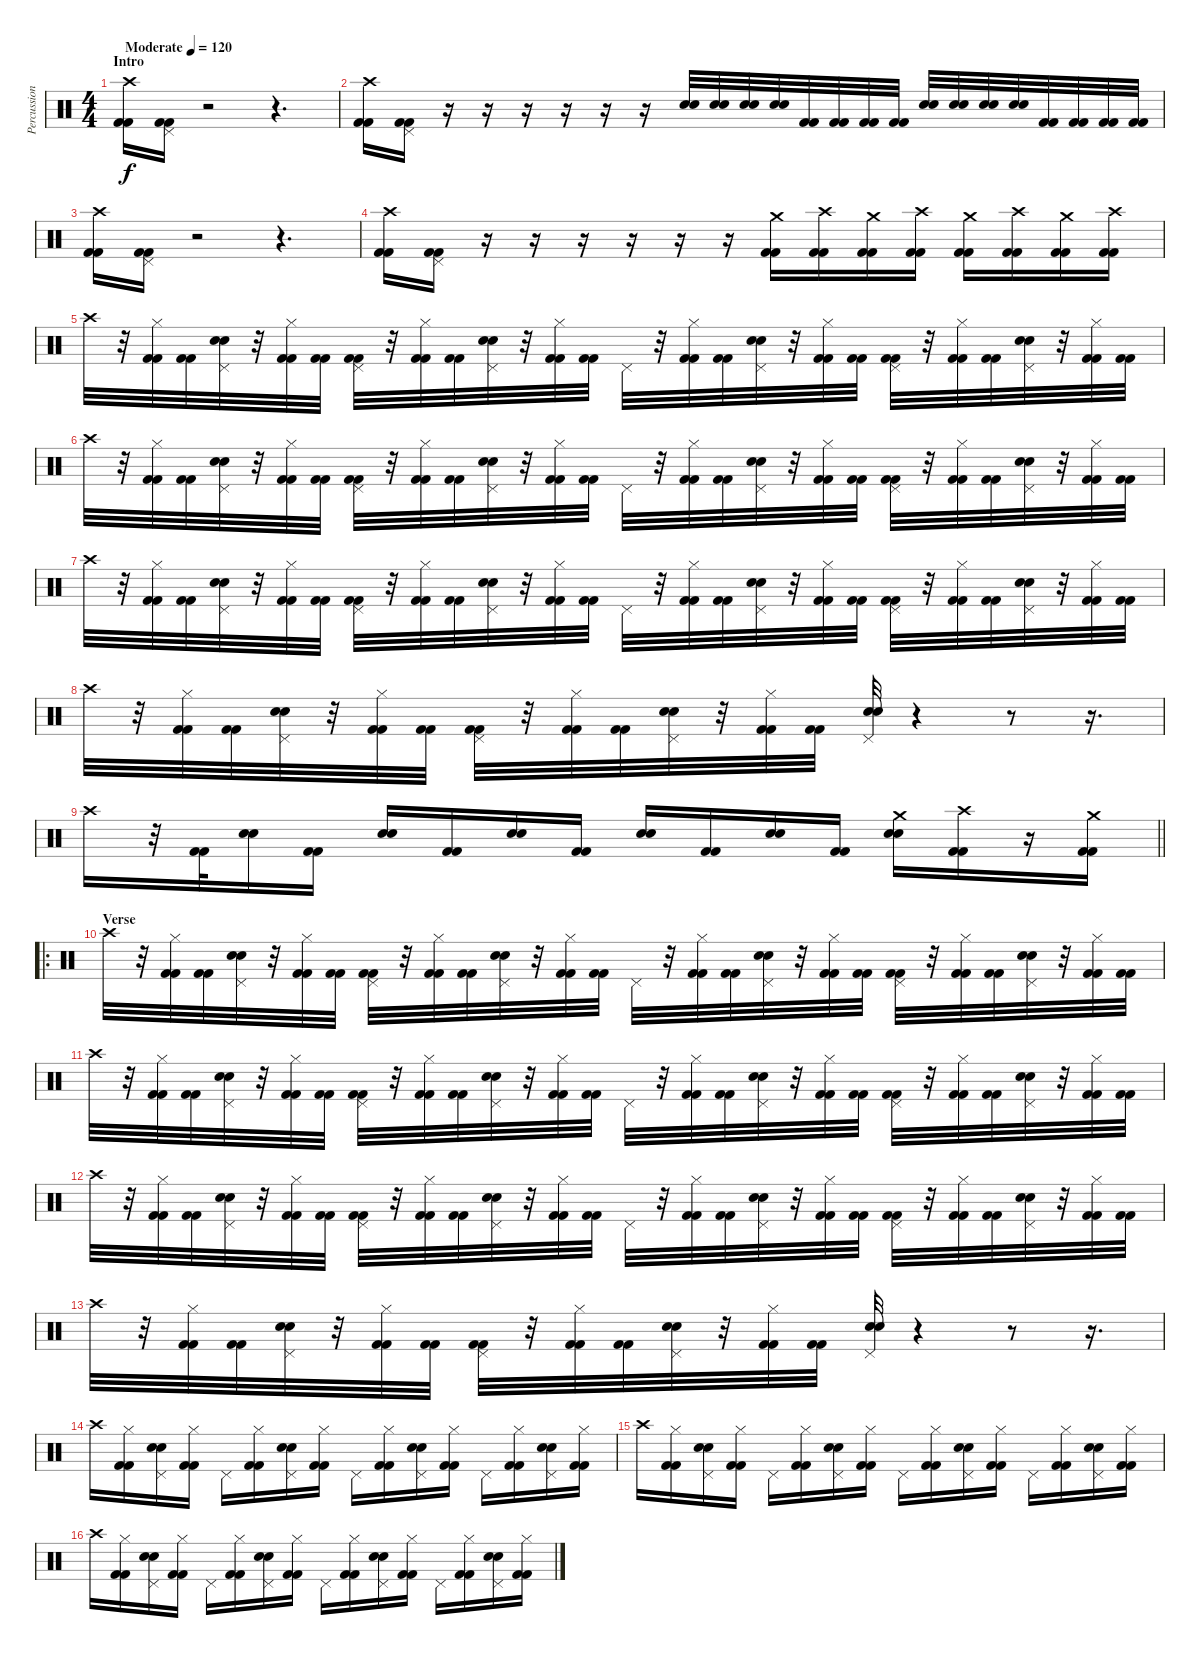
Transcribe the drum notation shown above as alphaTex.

\track ("Percussions" "Percussion") {instrument percussion}
\staff {score}
\articulation defaults
\ts (4 4)
\section ("" "Intro")
\tempo (120 "Moderate")
\clef neutral
\ks c
("Crash high (hit)" "Kick (hit) 2" "Kick (hit) 2").16{dy f} ("Pedal Hi-Hat (hit)" "Kick (hit) 2" "Kick (hit) 2").16 r.2 r.4{d} |
("Crash high (hit)" "Kick (hit) 2" "Kick (hit) 2").16 ("Pedal Hi-Hat (hit)" "Kick (hit) 2" "Kick (hit) 2").16 r.16 r.16 r.16 r.16 r.16 r.16 ("Snare (hit) 2" "Electric Snare (hit)").32 ("Snare (hit) 2" "Electric Snare (hit)").32 ("Snare (hit) 2" "Electric Snare (hit)").32 ("Snare (hit) 2" "Electric Snare (hit)").32 ("Kick (hit) 2" "Kick (hit) 2").32 ("Kick (hit) 2" "Kick (hit) 2").32 ("Kick (hit) 2" "Kick (hit) 2").32 ("Kick (hit) 2" "Kick (hit) 2").32 ("Snare (hit) 2" "Electric Snare (hit)").32 ("Snare (hit) 2" "Electric Snare (hit)").32 ("Snare (hit) 2" "Electric Snare (hit)").32 ("Snare (hit) 2" "Electric Snare (hit)").32 ("Kick (hit) 2" "Kick (hit) 2").32 ("Kick (hit) 2" "Kick (hit) 2").32 ("Kick (hit) 2" "Kick (hit) 2").32 ("Kick (hit) 2" "Kick (hit) 2").32 |
("Crash high (hit)" "Kick (hit) 2" "Kick (hit) 2").16 ("Pedal Hi-Hat (hit)" "Kick (hit) 2" "Kick (hit) 2").16 r.2 r.4{d} |
("Crash high (hit)" "Kick (hit) 2" "Kick (hit) 2").16 ("Pedal Hi-Hat (hit)" "Kick (hit) 2" "Kick (hit) 2").16 r.16 r.16 r.16 r.16 r.16 r.16 ("Crash medium (hit)" "Kick (hit) 2" "Kick (hit) 2").16 ("Crash high (hit)" "Kick (hit) 2" "Kick (hit) 2").16 ("Crash medium (hit)" "Kick (hit) 2" "Kick (hit) 2").16 ("Crash high (hit)" "Kick (hit) 2" "Kick (hit) 2").16 ("Crash medium (hit)" "Kick (hit) 2" "Kick (hit) 2").16 ("Crash high (hit)" "Kick (hit) 2" "Kick (hit) 2").16 ("Crash medium (hit)" "Kick (hit) 2" "Kick (hit) 2").16 ("Crash high (hit)" "Kick (hit) 2" "Kick (hit) 2").16 |
"Crash high (hit)".32 r.32 ("Hi-Hat (closed)" "Kick (hit) 2" "Kick (hit) 2").32 ("Kick (hit) 2" "Kick (hit) 2").32 ("Pedal Hi-Hat (hit)" "Snare (hit) 2" "Electric Snare (hit)").32 r.32 ("Hi-Hat (closed)" "Kick (hit) 2" "Kick (hit) 2").32 ("Kick (hit) 2" "Kick (hit) 2").32 ("Pedal Hi-Hat (hit)" "Kick (hit) 2" "Kick (hit) 2").32 r.32 ("Hi-Hat (closed)" "Kick (hit) 2" "Kick (hit) 2").32 ("Kick (hit) 2" "Kick (hit) 2").32 ("Pedal Hi-Hat (hit)" "Snare (hit) 2" "Electric Snare (hit)").32 r.32 ("Hi-Hat (closed)" "Kick (hit) 2" "Kick (hit) 2").32 ("Kick (hit) 2" "Kick (hit) 2").32 "Pedal Hi-Hat (hit)".32 r.32 ("Hi-Hat (closed)" "Kick (hit) 2" "Kick (hit) 2").32 ("Kick (hit) 2" "Kick (hit) 2").32 ("Pedal Hi-Hat (hit)" "Snare (hit) 2" "Electric Snare (hit)").32 r.32 ("Hi-Hat (closed)" "Kick (hit) 2" "Kick (hit) 2").32 ("Kick (hit) 2" "Kick (hit) 2").32 ("Pedal Hi-Hat (hit)" "Kick (hit) 2" "Kick (hit) 2").32 r.32 ("Hi-Hat (closed)" "Kick (hit) 2" "Kick (hit) 2").32 ("Kick (hit) 2" "Kick (hit) 2").32 ("Pedal Hi-Hat (hit)" "Snare (hit) 2" "Electric Snare (hit)").32 r.32 ("Hi-Hat (closed)" "Kick (hit) 2" "Kick (hit) 2").32 ("Kick (hit) 2" "Kick (hit) 2").32 |
"Crash high (hit)".32 r.32 ("Hi-Hat (closed)" "Kick (hit) 2" "Kick (hit) 2").32 ("Kick (hit) 2" "Kick (hit) 2").32 ("Pedal Hi-Hat (hit)" "Snare (hit) 2" "Electric Snare (hit)").32 r.32 ("Hi-Hat (closed)" "Kick (hit) 2" "Kick (hit) 2").32 ("Kick (hit) 2" "Kick (hit) 2").32 ("Pedal Hi-Hat (hit)" "Kick (hit) 2" "Kick (hit) 2").32 r.32 ("Hi-Hat (closed)" "Kick (hit) 2" "Kick (hit) 2").32 ("Kick (hit) 2" "Kick (hit) 2").32 ("Pedal Hi-Hat (hit)" "Snare (hit) 2" "Electric Snare (hit)").32 r.32 ("Hi-Hat (closed)" "Kick (hit) 2" "Kick (hit) 2").32 ("Kick (hit) 2" "Kick (hit) 2").32 "Pedal Hi-Hat (hit)".32 r.32 ("Hi-Hat (closed)" "Kick (hit) 2" "Kick (hit) 2").32 ("Kick (hit) 2" "Kick (hit) 2").32 ("Pedal Hi-Hat (hit)" "Snare (hit) 2" "Electric Snare (hit)").32 r.32 ("Hi-Hat (closed)" "Kick (hit) 2" "Kick (hit) 2").32 ("Kick (hit) 2" "Kick (hit) 2").32 ("Pedal Hi-Hat (hit)" "Kick (hit) 2" "Kick (hit) 2").32 r.32 ("Hi-Hat (closed)" "Kick (hit) 2" "Kick (hit) 2").32 ("Kick (hit) 2" "Kick (hit) 2").32 ("Pedal Hi-Hat (hit)" "Snare (hit) 2" "Electric Snare (hit)").32 r.32 ("Hi-Hat (closed)" "Kick (hit) 2" "Kick (hit) 2").32 ("Kick (hit) 2" "Kick (hit) 2").32 |
"Crash high (hit)".32 r.32 ("Hi-Hat (closed)" "Kick (hit) 2" "Kick (hit) 2").32 ("Kick (hit) 2" "Kick (hit) 2").32 ("Pedal Hi-Hat (hit)" "Snare (hit) 2" "Electric Snare (hit)").32 r.32 ("Hi-Hat (closed)" "Kick (hit) 2" "Kick (hit) 2").32 ("Kick (hit) 2" "Kick (hit) 2").32 ("Pedal Hi-Hat (hit)" "Kick (hit) 2" "Kick (hit) 2").32 r.32 ("Hi-Hat (closed)" "Kick (hit) 2" "Kick (hit) 2").32 ("Kick (hit) 2" "Kick (hit) 2").32 ("Pedal Hi-Hat (hit)" "Snare (hit) 2" "Electric Snare (hit)").32 r.32 ("Hi-Hat (closed)" "Kick (hit) 2" "Kick (hit) 2").32 ("Kick (hit) 2" "Kick (hit) 2").32 "Pedal Hi-Hat (hit)".32 r.32 ("Hi-Hat (closed)" "Kick (hit) 2" "Kick (hit) 2").32 ("Kick (hit) 2" "Kick (hit) 2").32 ("Pedal Hi-Hat (hit)" "Snare (hit) 2" "Electric Snare (hit)").32 r.32 ("Hi-Hat (closed)" "Kick (hit) 2" "Kick (hit) 2").32 ("Kick (hit) 2" "Kick (hit) 2").32 ("Pedal Hi-Hat (hit)" "Kick (hit) 2" "Kick (hit) 2").32 r.32 ("Hi-Hat (closed)" "Kick (hit) 2" "Kick (hit) 2").32 ("Kick (hit) 2" "Kick (hit) 2").32 ("Pedal Hi-Hat (hit)" "Snare (hit) 2" "Electric Snare (hit)").32 r.32 ("Hi-Hat (closed)" "Kick (hit) 2" "Kick (hit) 2").32 ("Kick (hit) 2" "Kick (hit) 2").32 |
"Crash high (hit)".32 r.32 ("Hi-Hat (closed)" "Kick (hit) 2" "Kick (hit) 2").32 ("Kick (hit) 2" "Kick (hit) 2").32 ("Pedal Hi-Hat (hit)" "Snare (hit) 2" "Electric Snare (hit)").32 r.32 ("Hi-Hat (closed)" "Kick (hit) 2" "Kick (hit) 2").32 ("Kick (hit) 2" "Kick (hit) 2").32 ("Pedal Hi-Hat (hit)" "Kick (hit) 2" "Kick (hit) 2").32 r.32 ("Hi-Hat (closed)" "Kick (hit) 2" "Kick (hit) 2").32 ("Kick (hit) 2" "Kick (hit) 2").32 ("Pedal Hi-Hat (hit)" "Snare (hit) 2" "Electric Snare (hit)").32 r.32 ("Hi-Hat (closed)" "Kick (hit) 2" "Kick (hit) 2").32 ("Kick (hit) 2" "Kick (hit) 2").32 ("Pedal Hi-Hat (hit)" "Snare (hit) 2" "Electric Snare (hit)").32 r.4 r.8 r.16{d} |
\barLineRight lightlight "Crash high (hit)".16
r.32 ("Kick (hit) 2" "Kick (hit) 2").32 ("Snare (hit) 2" "Electric Snare (hit)").16 ("Kick (hit) 2" "Kick (hit) 2").16 ("Snare (hit) 2" "Electric Snare (hit)").16 ("Kick (hit) 2" "Kick (hit) 2").16 ("Snare (hit) 2" "Electric Snare (hit)").16 ("Kick (hit) 2" "Kick (hit) 2").16 ("Snare (hit) 2" "Electric Snare (hit)").16 ("Kick (hit) 2" "Kick (hit) 2").16 ("Snare (hit) 2" "Electric Snare (hit)").16 ("Kick (hit) 2" "Kick (hit) 2").16 ("Crash medium (hit)" "Snare (hit) 2" "Electric Snare (hit)").16 ("Crash high (hit)" "Kick (hit) 2" "Kick (hit) 2").16 r.16 ("Crash medium (hit)" "Kick (hit) 2" "Kick (hit) 2").16 |
\ro
\section ("" "Verse")
"Crash high (hit)".32 r.32 ("Hi-Hat (closed)" "Kick (hit) 2" "Kick (hit) 2").32 ("Kick (hit) 2" "Kick (hit) 2").32 ("Pedal Hi-Hat (hit)" "Snare (hit) 2" "Electric Snare (hit)").32 r.32 ("Hi-Hat (closed)" "Kick (hit) 2" "Kick (hit) 2").32 ("Kick (hit) 2" "Kick (hit) 2").32 ("Pedal Hi-Hat (hit)" "Kick (hit) 2" "Kick (hit) 2").32 r.32 ("Hi-Hat (closed)" "Kick (hit) 2" "Kick (hit) 2").32 ("Kick (hit) 2" "Kick (hit) 2").32 ("Pedal Hi-Hat (hit)" "Snare (hit) 2" "Electric Snare (hit)").32 r.32 ("Hi-Hat (closed)" "Kick (hit) 2" "Kick (hit) 2").32 ("Kick (hit) 2" "Kick (hit) 2").32 "Pedal Hi-Hat (hit)".32 r.32 ("Hi-Hat (closed)" "Kick (hit) 2" "Kick (hit) 2").32 ("Kick (hit) 2" "Kick (hit) 2").32 ("Pedal Hi-Hat (hit)" "Snare (hit) 2" "Electric Snare (hit)").32 r.32 ("Hi-Hat (closed)" "Kick (hit) 2" "Kick (hit) 2").32 ("Kick (hit) 2" "Kick (hit) 2").32 ("Pedal Hi-Hat (hit)" "Kick (hit) 2" "Kick (hit) 2").32 r.32 ("Hi-Hat (closed)" "Kick (hit) 2" "Kick (hit) 2").32 ("Kick (hit) 2" "Kick (hit) 2").32 ("Pedal Hi-Hat (hit)" "Snare (hit) 2" "Electric Snare (hit)").32 r.32 ("Hi-Hat (closed)" "Kick (hit) 2" "Kick (hit) 2").32 ("Kick (hit) 2" "Kick (hit) 2").32 |
"Crash high (hit)".32 r.32 ("Hi-Hat (closed)" "Kick (hit) 2" "Kick (hit) 2").32 ("Kick (hit) 2" "Kick (hit) 2").32 ("Pedal Hi-Hat (hit)" "Snare (hit) 2" "Electric Snare (hit)").32 r.32 ("Hi-Hat (closed)" "Kick (hit) 2" "Kick (hit) 2").32 ("Kick (hit) 2" "Kick (hit) 2").32 ("Pedal Hi-Hat (hit)" "Kick (hit) 2" "Kick (hit) 2").32 r.32 ("Hi-Hat (closed)" "Kick (hit) 2" "Kick (hit) 2").32 ("Kick (hit) 2" "Kick (hit) 2").32 ("Pedal Hi-Hat (hit)" "Snare (hit) 2" "Electric Snare (hit)").32 r.32 ("Hi-Hat (closed)" "Kick (hit) 2" "Kick (hit) 2").32 ("Kick (hit) 2" "Kick (hit) 2").32 "Pedal Hi-Hat (hit)".32 r.32 ("Hi-Hat (closed)" "Kick (hit) 2" "Kick (hit) 2").32 ("Kick (hit) 2" "Kick (hit) 2").32 ("Pedal Hi-Hat (hit)" "Snare (hit) 2" "Electric Snare (hit)").32 r.32 ("Hi-Hat (closed)" "Kick (hit) 2" "Kick (hit) 2").32 ("Kick (hit) 2" "Kick (hit) 2").32 ("Pedal Hi-Hat (hit)" "Kick (hit) 2" "Kick (hit) 2").32 r.32 ("Hi-Hat (closed)" "Kick (hit) 2" "Kick (hit) 2").32 ("Kick (hit) 2" "Kick (hit) 2").32 ("Pedal Hi-Hat (hit)" "Snare (hit) 2" "Electric Snare (hit)").32 r.32 ("Hi-Hat (closed)" "Kick (hit) 2" "Kick (hit) 2").32 ("Kick (hit) 2" "Kick (hit) 2").32 |
"Crash high (hit)".32 r.32 ("Hi-Hat (closed)" "Kick (hit) 2" "Kick (hit) 2").32 ("Kick (hit) 2" "Kick (hit) 2").32 ("Pedal Hi-Hat (hit)" "Snare (hit) 2" "Electric Snare (hit)").32 r.32 ("Hi-Hat (closed)" "Kick (hit) 2" "Kick (hit) 2").32 ("Kick (hit) 2" "Kick (hit) 2").32 ("Pedal Hi-Hat (hit)" "Kick (hit) 2" "Kick (hit) 2").32 r.32 ("Hi-Hat (closed)" "Kick (hit) 2" "Kick (hit) 2").32 ("Kick (hit) 2" "Kick (hit) 2").32 ("Pedal Hi-Hat (hit)" "Snare (hit) 2" "Electric Snare (hit)").32 r.32 ("Hi-Hat (closed)" "Kick (hit) 2" "Kick (hit) 2").32 ("Kick (hit) 2" "Kick (hit) 2").32 "Pedal Hi-Hat (hit)".32 r.32 ("Hi-Hat (closed)" "Kick (hit) 2" "Kick (hit) 2").32 ("Kick (hit) 2" "Kick (hit) 2").32 ("Pedal Hi-Hat (hit)" "Snare (hit) 2" "Electric Snare (hit)").32 r.32 ("Hi-Hat (closed)" "Kick (hit) 2" "Kick (hit) 2").32 ("Kick (hit) 2" "Kick (hit) 2").32 ("Pedal Hi-Hat (hit)" "Kick (hit) 2" "Kick (hit) 2").32 r.32 ("Hi-Hat (closed)" "Kick (hit) 2" "Kick (hit) 2").32 ("Kick (hit) 2" "Kick (hit) 2").32 ("Pedal Hi-Hat (hit)" "Snare (hit) 2" "Electric Snare (hit)").32 r.32 ("Hi-Hat (closed)" "Kick (hit) 2" "Kick (hit) 2").32 ("Kick (hit) 2" "Kick (hit) 2").32 |
"Crash high (hit)".32 r.32 ("Hi-Hat (closed)" "Kick (hit) 2" "Kick (hit) 2").32 ("Kick (hit) 2" "Kick (hit) 2").32 ("Pedal Hi-Hat (hit)" "Snare (hit) 2" "Electric Snare (hit)").32 r.32 ("Hi-Hat (closed)" "Kick (hit) 2" "Kick (hit) 2").32 ("Kick (hit) 2" "Kick (hit) 2").32 ("Pedal Hi-Hat (hit)" "Kick (hit) 2" "Kick (hit) 2").32 r.32 ("Hi-Hat (closed)" "Kick (hit) 2" "Kick (hit) 2").32 ("Kick (hit) 2" "Kick (hit) 2").32 ("Pedal Hi-Hat (hit)" "Snare (hit) 2" "Electric Snare (hit)").32 r.32 ("Hi-Hat (closed)" "Kick (hit) 2" "Kick (hit) 2").32 ("Kick (hit) 2" "Kick (hit) 2").32 ("Pedal Hi-Hat (hit)" "Snare (hit) 2" "Electric Snare (hit)").32 r.4 r.8 r.16{d} |
"Crash high (hit)".16 ("Hi-Hat (closed)" "Kick (hit) 2" "Kick (hit) 2").16 ("Pedal Hi-Hat (hit)" "Snare (hit) 2" "Electric Snare (hit)").16 ("Hi-Hat (closed)" "Kick (hit) 2" "Kick (hit) 2").16 "Pedal Hi-Hat (hit)".16 ("Hi-Hat (closed)" "Kick (hit) 2" "Kick (hit) 2").16 ("Pedal Hi-Hat (hit)" "Snare (hit) 2" "Electric Snare (hit)").16 ("Hi-Hat (closed)" "Kick (hit) 2" "Kick (hit) 2").16 "Pedal Hi-Hat (hit)".16 ("Hi-Hat (closed)" "Kick (hit) 2" "Kick (hit) 2").16 ("Pedal Hi-Hat (hit)" "Snare (hit) 2" "Electric Snare (hit)").16 ("Hi-Hat (closed)" "Kick (hit) 2" "Kick (hit) 2").16 "Pedal Hi-Hat (hit)".16 ("Hi-Hat (closed)" "Kick (hit) 2" "Kick (hit) 2").16 ("Pedal Hi-Hat (hit)" "Snare (hit) 2" "Electric Snare (hit)").16 ("Hi-Hat (closed)" "Kick (hit) 2" "Kick (hit) 2").16 |
"Crash high (hit)".16 ("Hi-Hat (closed)" "Kick (hit) 2" "Kick (hit) 2").16 ("Pedal Hi-Hat (hit)" "Snare (hit) 2" "Electric Snare (hit)").16 ("Hi-Hat (closed)" "Kick (hit) 2" "Kick (hit) 2").16 "Pedal Hi-Hat (hit)".16 ("Hi-Hat (closed)" "Kick (hit) 2" "Kick (hit) 2").16 ("Pedal Hi-Hat (hit)" "Snare (hit) 2" "Electric Snare (hit)").16 ("Hi-Hat (closed)" "Kick (hit) 2" "Kick (hit) 2").16 "Pedal Hi-Hat (hit)".16 ("Hi-Hat (closed)" "Kick (hit) 2" "Kick (hit) 2").16 ("Pedal Hi-Hat (hit)" "Snare (hit) 2" "Electric Snare (hit)").16 ("Hi-Hat (closed)" "Kick (hit) 2" "Kick (hit) 2").16 "Pedal Hi-Hat (hit)".16 ("Hi-Hat (closed)" "Kick (hit) 2" "Kick (hit) 2").16 ("Pedal Hi-Hat (hit)" "Snare (hit) 2" "Electric Snare (hit)").16 ("Hi-Hat (closed)" "Kick (hit) 2" "Kick (hit) 2").16 |
"Crash high (hit)".16 ("Hi-Hat (closed)" "Kick (hit) 2" "Kick (hit) 2").16 ("Pedal Hi-Hat (hit)" "Snare (hit) 2" "Electric Snare (hit)").16 ("Hi-Hat (closed)" "Kick (hit) 2" "Kick (hit) 2").16 "Pedal Hi-Hat (hit)".16 ("Hi-Hat (closed)" "Kick (hit) 2" "Kick (hit) 2").16 ("Pedal Hi-Hat (hit)" "Snare (hit) 2" "Electric Snare (hit)").16 ("Hi-Hat (closed)" "Kick (hit) 2" "Kick (hit) 2").16 "Pedal Hi-Hat (hit)".16 ("Hi-Hat (closed)" "Kick (hit) 2" "Kick (hit) 2").16 ("Pedal Hi-Hat (hit)" "Snare (hit) 2" "Electric Snare (hit)").16 ("Hi-Hat (closed)" "Kick (hit) 2" "Kick (hit) 2").16 "Pedal Hi-Hat (hit)".16 ("Hi-Hat (closed)" "Kick (hit) 2" "Kick (hit) 2").16 ("Pedal Hi-Hat (hit)" "Snare (hit) 2" "Electric Snare (hit)").16 ("Hi-Hat (closed)" "Kick (hit) 2" "Kick (hit) 2").16
